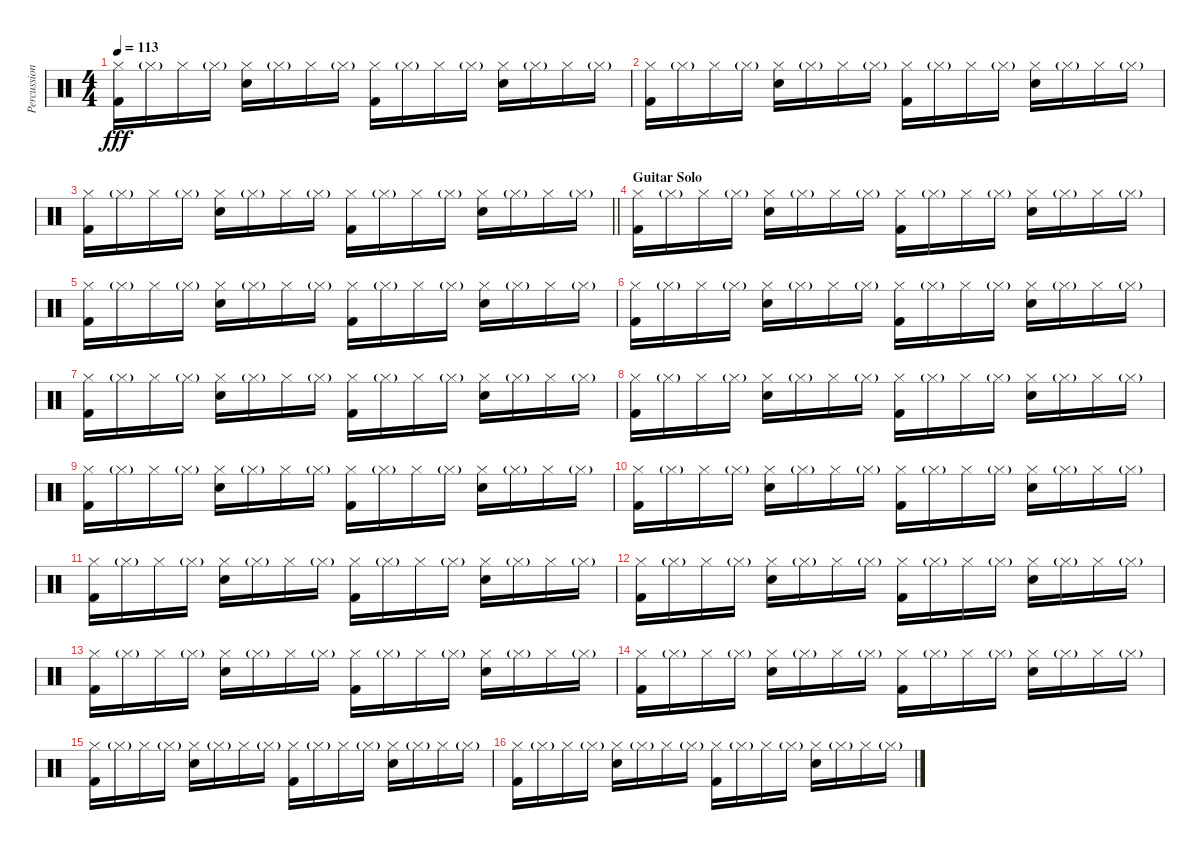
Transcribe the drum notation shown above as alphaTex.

\track ("Percussion" "Percussion") {instrument percussion}
\staff {score}
\articulation defaults
\ts (4 4)
\tempo 113
\clef neutral
\ks c
("Hi-Hat (closed)" "Kick (hit) 2").16{dy fff} "Hi-Hat (closed)"{g}.16 "Hi-Hat (closed)".16 "Hi-Hat (closed)"{g}.16 ("Hi-Hat (closed)" "Electric Snare (hit)").16 "Hi-Hat (closed)"{g}.16 "Hi-Hat (closed)".16 "Hi-Hat (closed)"{g}.16 ("Hi-Hat (closed)" "Kick (hit) 2").16 "Hi-Hat (closed)"{g}.16 "Hi-Hat (closed)".16 "Hi-Hat (closed)"{g}.16 ("Hi-Hat (closed)" "Electric Snare (hit)").16 "Hi-Hat (closed)"{g}.16 "Hi-Hat (closed)".16 "Hi-Hat (closed)"{g}.16 |
("Hi-Hat (closed)" "Kick (hit) 2").16 "Hi-Hat (closed)"{g}.16 "Hi-Hat (closed)".16 "Hi-Hat (closed)"{g}.16 ("Hi-Hat (closed)" "Electric Snare (hit)").16 "Hi-Hat (closed)"{g}.16 "Hi-Hat (closed)".16 "Hi-Hat (closed)"{g}.16 ("Hi-Hat (closed)" "Kick (hit) 2").16 "Hi-Hat (closed)"{g}.16 "Hi-Hat (closed)".16 "Hi-Hat (closed)"{g}.16 ("Hi-Hat (closed)" "Electric Snare (hit)").16 "Hi-Hat (closed)"{g}.16 "Hi-Hat (closed)".16 "Hi-Hat (closed)"{g}.16 |
\barLineRight lightlight
("Hi-Hat (closed)" "Kick (hit) 2").16 "Hi-Hat (closed)"{g}.16 "Hi-Hat (closed)".16 "Hi-Hat (closed)"{g}.16 ("Hi-Hat (closed)" "Electric Snare (hit)").16 "Hi-Hat (closed)"{g}.16 "Hi-Hat (closed)".16 "Hi-Hat (closed)"{g}.16 ("Hi-Hat (closed)" "Kick (hit) 2").16 "Hi-Hat (closed)"{g}.16 "Hi-Hat (closed)".16 "Hi-Hat (closed)"{g}.16 ("Hi-Hat (closed)" "Electric Snare (hit)").16 "Hi-Hat (closed)"{g}.16 "Hi-Hat (closed)".16 "Hi-Hat (closed)"{g}.16 |
\section ("" "Guitar Solo")
("Hi-Hat (closed)" "Kick (hit) 2").16 "Hi-Hat (closed)"{g}.16 "Hi-Hat (closed)".16 "Hi-Hat (closed)"{g}.16 ("Hi-Hat (closed)" "Electric Snare (hit)").16 "Hi-Hat (closed)"{g}.16 "Hi-Hat (closed)".16 "Hi-Hat (closed)"{g}.16 ("Hi-Hat (closed)" "Kick (hit) 2").16 "Hi-Hat (closed)"{g}.16 "Hi-Hat (closed)".16 "Hi-Hat (closed)"{g}.16 ("Hi-Hat (closed)" "Electric Snare (hit)").16 "Hi-Hat (closed)"{g}.16 "Hi-Hat (closed)".16 "Hi-Hat (closed)"{g}.16 |
("Hi-Hat (closed)" "Kick (hit) 2").16 "Hi-Hat (closed)"{g}.16 "Hi-Hat (closed)".16 "Hi-Hat (closed)"{g}.16 ("Hi-Hat (closed)" "Electric Snare (hit)").16 "Hi-Hat (closed)"{g}.16 "Hi-Hat (closed)".16 "Hi-Hat (closed)"{g}.16 ("Hi-Hat (closed)" "Kick (hit) 2").16 "Hi-Hat (closed)"{g}.16 "Hi-Hat (closed)".16 "Hi-Hat (closed)"{g}.16 ("Hi-Hat (closed)" "Electric Snare (hit)").16 "Hi-Hat (closed)"{g}.16 "Hi-Hat (closed)".16 "Hi-Hat (closed)"{g}.16 |
("Hi-Hat (closed)" "Kick (hit) 2").16 "Hi-Hat (closed)"{g}.16 "Hi-Hat (closed)".16 "Hi-Hat (closed)"{g}.16 ("Hi-Hat (closed)" "Electric Snare (hit)").16 "Hi-Hat (closed)"{g}.16 "Hi-Hat (closed)".16 "Hi-Hat (closed)"{g}.16 ("Hi-Hat (closed)" "Kick (hit) 2").16 "Hi-Hat (closed)"{g}.16 "Hi-Hat (closed)".16 "Hi-Hat (closed)"{g}.16 ("Hi-Hat (closed)" "Electric Snare (hit)").16 "Hi-Hat (closed)"{g}.16 "Hi-Hat (closed)".16 "Hi-Hat (closed)"{g}.16 |
("Hi-Hat (closed)" "Kick (hit) 2").16 "Hi-Hat (closed)"{g}.16 "Hi-Hat (closed)".16 "Hi-Hat (closed)"{g}.16 ("Hi-Hat (closed)" "Electric Snare (hit)").16 "Hi-Hat (closed)"{g}.16 "Hi-Hat (closed)".16 "Hi-Hat (closed)"{g}.16 ("Hi-Hat (closed)" "Kick (hit) 2").16 "Hi-Hat (closed)"{g}.16 "Hi-Hat (closed)".16 "Hi-Hat (closed)"{g}.16 ("Hi-Hat (closed)" "Electric Snare (hit)").16 "Hi-Hat (closed)"{g}.16 "Hi-Hat (closed)".16 "Hi-Hat (closed)"{g}.16 |
("Hi-Hat (closed)" "Kick (hit) 2").16 "Hi-Hat (closed)"{g}.16 "Hi-Hat (closed)".16 "Hi-Hat (closed)"{g}.16 ("Hi-Hat (closed)" "Electric Snare (hit)").16 "Hi-Hat (closed)"{g}.16 "Hi-Hat (closed)".16 "Hi-Hat (closed)"{g}.16 ("Hi-Hat (closed)" "Kick (hit) 2").16 "Hi-Hat (closed)"{g}.16 "Hi-Hat (closed)".16 "Hi-Hat (closed)"{g}.16 ("Hi-Hat (closed)" "Electric Snare (hit)").16 "Hi-Hat (closed)"{g}.16 "Hi-Hat (closed)".16 "Hi-Hat (closed)"{g}.16 |
("Hi-Hat (closed)" "Kick (hit) 2").16 "Hi-Hat (closed)"{g}.16 "Hi-Hat (closed)".16 "Hi-Hat (closed)"{g}.16 ("Hi-Hat (closed)" "Electric Snare (hit)").16 "Hi-Hat (closed)"{g}.16 "Hi-Hat (closed)".16 "Hi-Hat (closed)"{g}.16 ("Hi-Hat (closed)" "Kick (hit) 2").16 "Hi-Hat (closed)"{g}.16 "Hi-Hat (closed)".16 "Hi-Hat (closed)"{g}.16 ("Hi-Hat (closed)" "Electric Snare (hit)").16 "Hi-Hat (closed)"{g}.16 "Hi-Hat (closed)".16 "Hi-Hat (closed)"{g}.16 |
("Hi-Hat (closed)" "Kick (hit) 2").16 "Hi-Hat (closed)"{g}.16 "Hi-Hat (closed)".16 "Hi-Hat (closed)"{g}.16 ("Hi-Hat (closed)" "Electric Snare (hit)").16 "Hi-Hat (closed)"{g}.16 "Hi-Hat (closed)".16 "Hi-Hat (closed)"{g}.16 ("Hi-Hat (closed)" "Kick (hit) 2").16 "Hi-Hat (closed)"{g}.16 "Hi-Hat (closed)".16 "Hi-Hat (closed)"{g}.16 ("Hi-Hat (closed)" "Electric Snare (hit)").16 "Hi-Hat (closed)"{g}.16 "Hi-Hat (closed)".16 "Hi-Hat (closed)"{g}.16 |
("Hi-Hat (closed)" "Kick (hit) 2").16 "Hi-Hat (closed)"{g}.16 "Hi-Hat (closed)".16 "Hi-Hat (closed)"{g}.16 ("Hi-Hat (closed)" "Electric Snare (hit)").16 "Hi-Hat (closed)"{g}.16 "Hi-Hat (closed)".16 "Hi-Hat (closed)"{g}.16 ("Hi-Hat (closed)" "Kick (hit) 2").16 "Hi-Hat (closed)"{g}.16 "Hi-Hat (closed)".16 "Hi-Hat (closed)"{g}.16 ("Hi-Hat (closed)" "Electric Snare (hit)").16 "Hi-Hat (closed)"{g}.16 "Hi-Hat (closed)".16 "Hi-Hat (closed)"{g}.16 |
("Hi-Hat (closed)" "Kick (hit) 2").16 "Hi-Hat (closed)"{g}.16 "Hi-Hat (closed)".16 "Hi-Hat (closed)"{g}.16 ("Hi-Hat (closed)" "Electric Snare (hit)").16 "Hi-Hat (closed)"{g}.16 "Hi-Hat (closed)".16 "Hi-Hat (closed)"{g}.16 ("Hi-Hat (closed)" "Kick (hit) 2").16 "Hi-Hat (closed)"{g}.16 "Hi-Hat (closed)".16 "Hi-Hat (closed)"{g}.16 ("Hi-Hat (closed)" "Electric Snare (hit)").16 "Hi-Hat (closed)"{g}.16 "Hi-Hat (closed)".16 "Hi-Hat (closed)"{g}.16 |
("Hi-Hat (closed)" "Kick (hit) 2").16 "Hi-Hat (closed)"{g}.16 "Hi-Hat (closed)".16 "Hi-Hat (closed)"{g}.16 ("Hi-Hat (closed)" "Electric Snare (hit)").16 "Hi-Hat (closed)"{g}.16 "Hi-Hat (closed)".16 "Hi-Hat (closed)"{g}.16 ("Hi-Hat (closed)" "Kick (hit) 2").16 "Hi-Hat (closed)"{g}.16 "Hi-Hat (closed)".16 "Hi-Hat (closed)"{g}.16 ("Hi-Hat (closed)" "Electric Snare (hit)").16 "Hi-Hat (closed)"{g}.16 "Hi-Hat (closed)".16 "Hi-Hat (closed)"{g}.16 |
("Hi-Hat (closed)" "Kick (hit) 2").16 "Hi-Hat (closed)"{g}.16 "Hi-Hat (closed)".16 "Hi-Hat (closed)"{g}.16 ("Hi-Hat (closed)" "Electric Snare (hit)").16 "Hi-Hat (closed)"{g}.16 "Hi-Hat (closed)".16 "Hi-Hat (closed)"{g}.16 ("Hi-Hat (closed)" "Kick (hit) 2").16 "Hi-Hat (closed)"{g}.16 "Hi-Hat (closed)".16 "Hi-Hat (closed)"{g}.16 ("Hi-Hat (closed)" "Electric Snare (hit)").16 "Hi-Hat (closed)"{g}.16 "Hi-Hat (closed)".16 "Hi-Hat (closed)"{g}.16 |
("Hi-Hat (closed)" "Kick (hit) 2").16 "Hi-Hat (closed)"{g}.16 "Hi-Hat (closed)".16 "Hi-Hat (closed)"{g}.16 ("Hi-Hat (closed)" "Electric Snare (hit)").16 "Hi-Hat (closed)"{g}.16 "Hi-Hat (closed)".16 "Hi-Hat (closed)"{g}.16 ("Hi-Hat (closed)" "Kick (hit) 2").16 "Hi-Hat (closed)"{g}.16 "Hi-Hat (closed)".16 "Hi-Hat (closed)"{g}.16 ("Hi-Hat (closed)" "Electric Snare (hit)").16 "Hi-Hat (closed)"{g}.16 "Hi-Hat (closed)".16 "Hi-Hat (closed)"{g}.16 |
("Hi-Hat (closed)" "Kick (hit) 2").16 "Hi-Hat (closed)"{g}.16 "Hi-Hat (closed)".16 "Hi-Hat (closed)"{g}.16 ("Hi-Hat (closed)" "Electric Snare (hit)").16 "Hi-Hat (closed)"{g}.16 "Hi-Hat (closed)".16 "Hi-Hat (closed)"{g}.16 ("Hi-Hat (closed)" "Kick (hit) 2").16 "Hi-Hat (closed)"{g}.16 "Hi-Hat (closed)".16 "Hi-Hat (closed)"{g}.16 ("Hi-Hat (closed)" "Electric Snare (hit)").16 "Hi-Hat (closed)"{g}.16 "Hi-Hat (closed)".16 "Hi-Hat (closed)"{g}.16
